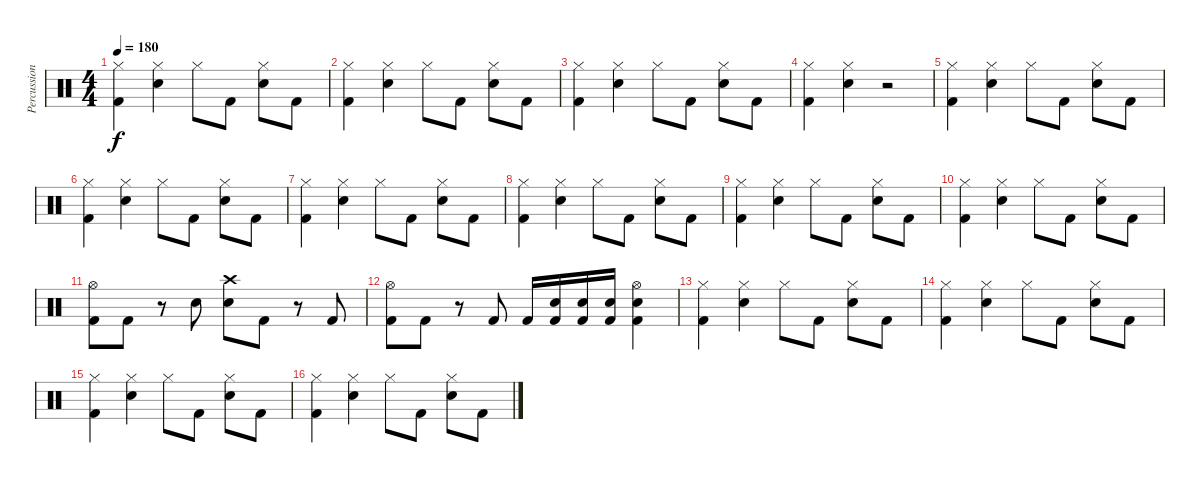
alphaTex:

\track ("Percussion" "Percussion") {instrument percussion}
\staff {score}
\articulation defaults
\ts (4 4)
\tempo 180
\clef neutral
\ks c
("Hi-Hat (closed)" "Kick (hit) 2").4{dy f} ("Hi-Hat (closed)" "Snare (hit) 2").4 "Hi-Hat (closed)".8 "Kick (hit) 2".8 ("Hi-Hat (closed)" "Snare (hit) 2").8 "Kick (hit) 2".8 |
("Hi-Hat (closed)" "Kick (hit) 2").4 ("Hi-Hat (closed)" "Snare (hit) 2").4 "Hi-Hat (closed)".8 "Kick (hit) 2".8 ("Hi-Hat (closed)" "Snare (hit) 2").8 "Kick (hit) 2".8 |
("Hi-Hat (closed)" "Kick (hit) 2").4 ("Hi-Hat (closed)" "Snare (hit) 2").4 "Hi-Hat (closed)".8 "Kick (hit) 2".8 ("Hi-Hat (closed)" "Snare (hit) 2").8 "Kick (hit) 2".8 |
("Hi-Hat (closed)" "Kick (hit) 2").4 ("Hi-Hat (closed)" "Snare (hit) 2").4 r.2 |
("Hi-Hat (closed)" "Kick (hit) 2").4 ("Hi-Hat (closed)" "Snare (hit) 2").4 "Hi-Hat (closed)".8 "Kick (hit) 2".8 ("Hi-Hat (closed)" "Snare (hit) 2").8 "Kick (hit) 2".8 |
("Hi-Hat (closed)" "Kick (hit) 2").4 ("Hi-Hat (closed)" "Snare (hit) 2").4 "Hi-Hat (closed)".8 "Kick (hit) 2".8 ("Hi-Hat (closed)" "Snare (hit) 2").8 "Kick (hit) 2".8 |
("Hi-Hat (closed)" "Kick (hit) 2").4 ("Hi-Hat (closed)" "Snare (hit) 2").4 "Hi-Hat (closed)".8 "Kick (hit) 2".8 ("Hi-Hat (closed)" "Snare (hit) 2").8 "Kick (hit) 2".8 |
("Hi-Hat (closed)" "Kick (hit) 2").4 ("Hi-Hat (closed)" "Snare (hit) 2").4 "Hi-Hat (closed)".8 "Kick (hit) 2".8 ("Hi-Hat (closed)" "Snare (hit) 2").8 "Kick (hit) 2".8 |
("Hi-Hat (closed)" "Kick (hit) 2").4 ("Hi-Hat (closed)" "Snare (hit) 2").4 "Hi-Hat (closed)".8 "Kick (hit) 2".8 ("Hi-Hat (closed)" "Snare (hit) 2").8 "Kick (hit) 2".8 |
("Hi-Hat (closed)" "Kick (hit) 2").4 ("Hi-Hat (closed)" "Snare (hit) 2").4 "Hi-Hat (closed)".8 "Kick (hit) 2".8 ("Hi-Hat (closed)" "Snare (hit) 2").8 "Kick (hit) 2".8 |
("Hi-Hat (open)" "Kick (hit) 2").8 "Kick (hit) 2".8 r.8 "Snare (hit) 2".8 ("Crash high (hit)" "Snare (hit) 2").8 "Kick (hit) 2".8 r.8 "Kick (hit) 2".8 |
("Hi-Hat (open)" "Kick (hit) 2").8 "Kick (hit) 2".8 r.8 "Kick (hit) 2".8 "Kick (hit) 2".16 ("Snare (hit) 2" "Kick (hit) 2").16 ("Snare (hit) 2" "Kick (hit) 2").16 ("Snare (hit) 2" "Kick (hit) 2").16 ("Hi-Hat (open)" "Snare (hit) 2" "Kick (hit) 2").4 |
("Hi-Hat (closed)" "Kick (hit) 2").4 ("Hi-Hat (closed)" "Snare (hit) 2").4 "Hi-Hat (closed)".8 "Kick (hit) 2".8 ("Hi-Hat (closed)" "Snare (hit) 2").8 "Kick (hit) 2".8 |
("Hi-Hat (closed)" "Kick (hit) 2").4 ("Hi-Hat (closed)" "Snare (hit) 2").4 "Hi-Hat (closed)".8 "Kick (hit) 2".8 ("Hi-Hat (closed)" "Snare (hit) 2").8 "Kick (hit) 2".8 |
("Hi-Hat (closed)" "Kick (hit) 2").4 ("Hi-Hat (closed)" "Snare (hit) 2").4 "Hi-Hat (closed)".8 "Kick (hit) 2".8 ("Hi-Hat (closed)" "Snare (hit) 2").8 "Kick (hit) 2".8 |
("Hi-Hat (closed)" "Kick (hit) 2").4 ("Hi-Hat (closed)" "Snare (hit) 2").4 "Hi-Hat (closed)".8 "Kick (hit) 2".8 ("Hi-Hat (closed)" "Snare (hit) 2").8 "Kick (hit) 2".8
